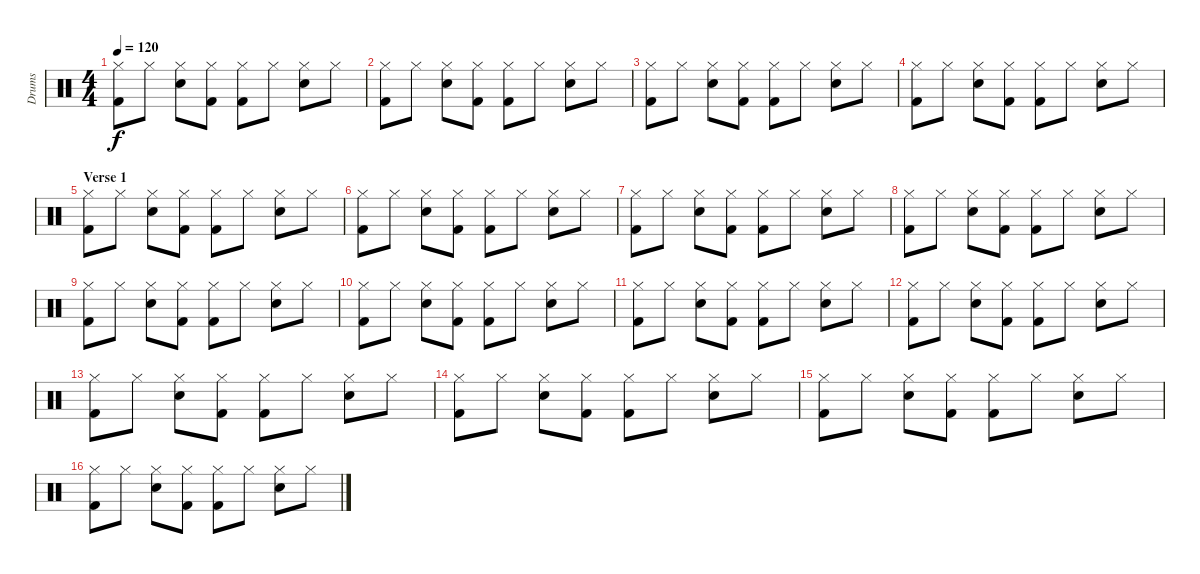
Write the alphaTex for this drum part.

\track ("Drums" "Drums") {instrument percussion}
\staff {score}
\articulation defaults
\ts (4 4)
\tempo 120
\clef neutral
\ks c
("Hi-Hat (closed)" "Kick (hit) 2").8{dy f} "Hi-Hat (closed)".8 ("Hi-Hat (closed)" "Snare (hit) 2").8 ("Hi-Hat (closed)" "Kick (hit) 2").8 ("Hi-Hat (closed)" "Kick (hit) 2").8 "Hi-Hat (closed)".8 ("Hi-Hat (closed)" "Snare (hit) 2").8 "Hi-Hat (closed)".8 |
("Hi-Hat (closed)" "Kick (hit) 2").8 "Hi-Hat (closed)".8 ("Hi-Hat (closed)" "Snare (hit) 2").8 ("Hi-Hat (closed)" "Kick (hit) 2").8 ("Hi-Hat (closed)" "Kick (hit) 2").8 "Hi-Hat (closed)".8 ("Hi-Hat (closed)" "Snare (hit) 2").8 "Hi-Hat (closed)".8 |
("Hi-Hat (closed)" "Kick (hit) 2").8 "Hi-Hat (closed)".8 ("Hi-Hat (closed)" "Snare (hit) 2").8 ("Hi-Hat (closed)" "Kick (hit) 2").8 ("Hi-Hat (closed)" "Kick (hit) 2").8 "Hi-Hat (closed)".8 ("Hi-Hat (closed)" "Snare (hit) 2").8 "Hi-Hat (closed)".8 |
("Hi-Hat (closed)" "Kick (hit) 2").8 "Hi-Hat (closed)".8 ("Hi-Hat (closed)" "Snare (hit) 2").8 ("Hi-Hat (closed)" "Kick (hit) 2").8 ("Hi-Hat (closed)" "Kick (hit) 2").8 "Hi-Hat (closed)".8 ("Hi-Hat (closed)" "Snare (hit) 2").8 "Hi-Hat (closed)".8 |
\section ("" "Verse 1")
("Hi-Hat (closed)" "Kick (hit) 2").8 "Hi-Hat (closed)".8 ("Hi-Hat (closed)" "Snare (hit) 2").8 ("Hi-Hat (closed)" "Kick (hit) 2").8 ("Hi-Hat (closed)" "Kick (hit) 2").8 "Hi-Hat (closed)".8 ("Hi-Hat (closed)" "Snare (hit) 2").8 "Hi-Hat (closed)".8 |
("Hi-Hat (closed)" "Kick (hit) 2").8 "Hi-Hat (closed)".8 ("Hi-Hat (closed)" "Snare (hit) 2").8 ("Hi-Hat (closed)" "Kick (hit) 2").8 ("Hi-Hat (closed)" "Kick (hit) 2").8 "Hi-Hat (closed)".8 ("Hi-Hat (closed)" "Snare (hit) 2").8 "Hi-Hat (closed)".8 |
("Hi-Hat (closed)" "Kick (hit) 2").8 "Hi-Hat (closed)".8 ("Hi-Hat (closed)" "Snare (hit) 2").8 ("Hi-Hat (closed)" "Kick (hit) 2").8 ("Hi-Hat (closed)" "Kick (hit) 2").8 "Hi-Hat (closed)".8 ("Hi-Hat (closed)" "Snare (hit) 2").8 "Hi-Hat (closed)".8 |
("Hi-Hat (closed)" "Kick (hit) 2").8 "Hi-Hat (closed)".8 ("Hi-Hat (closed)" "Snare (hit) 2").8 ("Hi-Hat (closed)" "Kick (hit) 2").8 ("Hi-Hat (closed)" "Kick (hit) 2").8 "Hi-Hat (closed)".8 ("Hi-Hat (closed)" "Snare (hit) 2").8 "Hi-Hat (closed)".8 |
("Hi-Hat (closed)" "Kick (hit) 2").8 "Hi-Hat (closed)".8 ("Hi-Hat (closed)" "Snare (hit) 2").8 ("Hi-Hat (closed)" "Kick (hit) 2").8 ("Hi-Hat (closed)" "Kick (hit) 2").8 "Hi-Hat (closed)".8 ("Hi-Hat (closed)" "Snare (hit) 2").8 "Hi-Hat (closed)".8 |
("Hi-Hat (closed)" "Kick (hit) 2").8 "Hi-Hat (closed)".8 ("Hi-Hat (closed)" "Snare (hit) 2").8 ("Hi-Hat (closed)" "Kick (hit) 2").8 ("Hi-Hat (closed)" "Kick (hit) 2").8 "Hi-Hat (closed)".8 ("Hi-Hat (closed)" "Snare (hit) 2").8 "Hi-Hat (closed)".8 |
("Hi-Hat (closed)" "Kick (hit) 2").8 "Hi-Hat (closed)".8 ("Hi-Hat (closed)" "Snare (hit) 2").8 ("Hi-Hat (closed)" "Kick (hit) 2").8 ("Hi-Hat (closed)" "Kick (hit) 2").8 "Hi-Hat (closed)".8 ("Hi-Hat (closed)" "Snare (hit) 2").8 "Hi-Hat (closed)".8 |
("Hi-Hat (closed)" "Kick (hit) 2").8 "Hi-Hat (closed)".8 ("Hi-Hat (closed)" "Snare (hit) 2").8 ("Hi-Hat (closed)" "Kick (hit) 2").8 ("Hi-Hat (closed)" "Kick (hit) 2").8 "Hi-Hat (closed)".8 ("Hi-Hat (closed)" "Snare (hit) 2").8 "Hi-Hat (closed)".8 |
("Hi-Hat (closed)" "Kick (hit) 2").8 "Hi-Hat (closed)".8 ("Hi-Hat (closed)" "Snare (hit) 2").8 ("Hi-Hat (closed)" "Kick (hit) 2").8 ("Hi-Hat (closed)" "Kick (hit) 2").8 "Hi-Hat (closed)".8 ("Hi-Hat (closed)" "Snare (hit) 2").8 "Hi-Hat (closed)".8 |
("Hi-Hat (closed)" "Kick (hit) 2").8 "Hi-Hat (closed)".8 ("Hi-Hat (closed)" "Snare (hit) 2").8 ("Hi-Hat (closed)" "Kick (hit) 2").8 ("Hi-Hat (closed)" "Kick (hit) 2").8 "Hi-Hat (closed)".8 ("Hi-Hat (closed)" "Snare (hit) 2").8 "Hi-Hat (closed)".8 |
("Hi-Hat (closed)" "Kick (hit) 2").8 "Hi-Hat (closed)".8 ("Hi-Hat (closed)" "Snare (hit) 2").8 ("Hi-Hat (closed)" "Kick (hit) 2").8 ("Hi-Hat (closed)" "Kick (hit) 2").8 "Hi-Hat (closed)".8 ("Hi-Hat (closed)" "Snare (hit) 2").8 "Hi-Hat (closed)".8 |
("Hi-Hat (closed)" "Kick (hit) 2").8 "Hi-Hat (closed)".8 ("Hi-Hat (closed)" "Snare (hit) 2").8 ("Hi-Hat (closed)" "Kick (hit) 2").8 ("Hi-Hat (closed)" "Kick (hit) 2").8 "Hi-Hat (closed)".8 ("Hi-Hat (closed)" "Snare (hit) 2").8 "Hi-Hat (closed)".8
